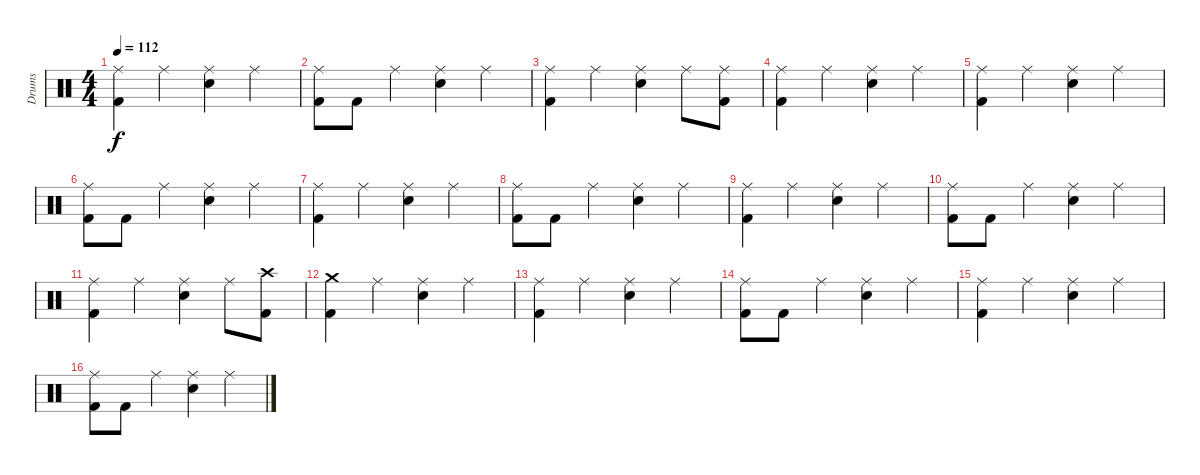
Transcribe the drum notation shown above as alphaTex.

\track ("Drums" "Drums") {instrument percussion}
\staff {score}
\articulation defaults
\ts (4 4)
\tempo 112
\clef neutral
\ks c
("Ride (middle)" "Kick (hit) 2").4{dy f} "Ride (middle)".4 ("Ride (middle)" "Snare (hit) 2").4 "Ride (middle)".4 |
("Ride (middle)" "Kick (hit) 2").8 "Kick (hit) 2".8 "Ride (middle)".4 ("Ride (middle)" "Snare (hit) 2").4 "Ride (middle)".4 |
("Ride (middle)" "Kick (hit) 2").4 "Ride (middle)".4 ("Ride (middle)" "Snare (hit) 2").4 "Ride (middle)".8 ("Ride (middle)" "Kick (hit) 2").8 |
("Ride (middle)" "Kick (hit) 2").4 "Ride (middle)".4 ("Ride (middle)" "Snare (hit) 2").4 "Ride (middle)".4 |
("Ride (middle)" "Kick (hit) 2").4 "Ride (middle)".4 ("Ride (middle)" "Snare (hit) 2").4 "Ride (middle)".4 |
("Ride (middle)" "Kick (hit) 2").8 "Kick (hit) 2".8 "Ride (middle)".4 ("Ride (middle)" "Snare (hit) 2").4 "Ride (middle)".4 |
("Ride (middle)" "Kick (hit) 2").4 "Ride (middle)".4 ("Ride (middle)" "Snare (hit) 2").4 "Ride (middle)".4 |
("Ride (middle)" "Kick (hit) 2").8 "Kick (hit) 2".8 "Ride (middle)".4 ("Ride (middle)" "Snare (hit) 2").4 "Ride (middle)".4 |
("Ride (middle)" "Kick (hit) 2").4 "Ride (middle)".4 ("Ride (middle)" "Snare (hit) 2").4 "Ride (middle)".4 |
("Ride (middle)" "Kick (hit) 2").8 "Kick (hit) 2".8 "Ride (middle)".4 ("Ride (middle)" "Snare (hit) 2").4 "Ride (middle)".4 |
("Ride (middle)" "Kick (hit) 2").4 "Ride (middle)".4 ("Ride (middle)" "Snare (hit) 2").4 "Ride (middle)".8 ("Crash high (hit)" "Kick (hit) 2").8 |
("Crash medium (hit)" "Kick (hit) 2").4 "Ride (middle)".4 ("Ride (middle)" "Snare (hit) 2").4 "Ride (middle)".4 |
("Ride (middle)" "Kick (hit) 2").4 "Ride (middle)".4 ("Ride (middle)" "Snare (hit) 2").4 "Ride (middle)".4 |
("Ride (middle)" "Kick (hit) 2").8 "Kick (hit) 2".8 "Ride (middle)".4 ("Ride (middle)" "Snare (hit) 2").4 "Ride (middle)".4 |
("Ride (middle)" "Kick (hit) 2").4 "Ride (middle)".4 ("Ride (middle)" "Snare (hit) 2").4 "Ride (middle)".4 |
("Ride (middle)" "Kick (hit) 2").8 "Kick (hit) 2".8 "Ride (middle)".4 ("Ride (middle)" "Snare (hit) 2").4 "Ride (middle)".4
